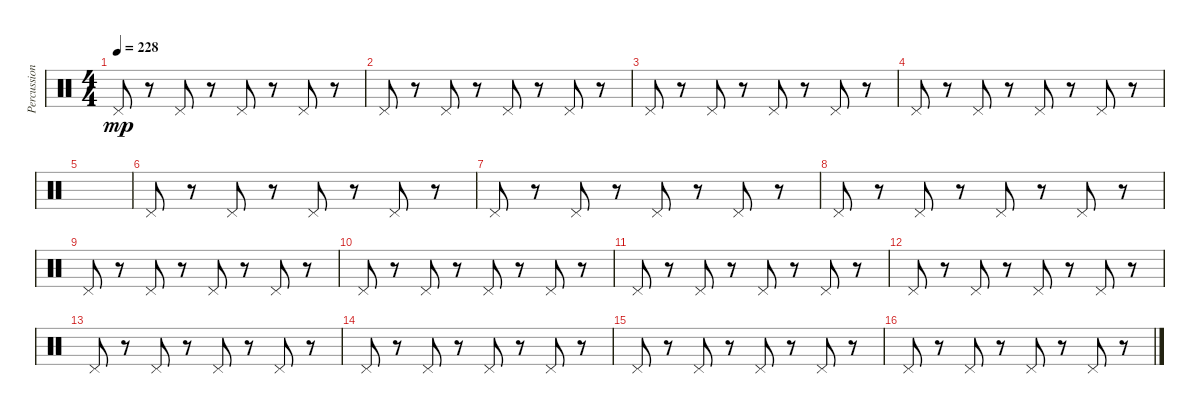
\track ("Percussions" "Percussion") {instrument percussion}
\staff {score}
\articulation defaults
\ts (4 4)
\tempo 228
\clef neutral
\ks c "Pedal Hi-Hat (hit)".8{dy mp}
r.8 "Pedal Hi-Hat (hit)".8 r.8 "Pedal Hi-Hat (hit)".8 r.8 "Pedal Hi-Hat (hit)".8 r.8 |
"Pedal Hi-Hat (hit)".8 r.8 "Pedal Hi-Hat (hit)".8 r.8 "Pedal Hi-Hat (hit)".8 r.8 "Pedal Hi-Hat (hit)".8 r.8 |
"Pedal Hi-Hat (hit)".8 r.8 "Pedal Hi-Hat (hit)".8 r.8 "Pedal Hi-Hat (hit)".8 r.8 "Pedal Hi-Hat (hit)".8 r.8 |
"Pedal Hi-Hat (hit)".8 r.8 "Pedal Hi-Hat (hit)".8 r.8 "Pedal Hi-Hat (hit)".8 r.8 "Pedal Hi-Hat (hit)".8 r.8 |
|
"Pedal Hi-Hat (hit)".8 r.8 "Pedal Hi-Hat (hit)".8 r.8 "Pedal Hi-Hat (hit)".8 r.8 "Pedal Hi-Hat (hit)".8 r.8 |
"Pedal Hi-Hat (hit)".8 r.8 "Pedal Hi-Hat (hit)".8 r.8 "Pedal Hi-Hat (hit)".8 r.8 "Pedal Hi-Hat (hit)".8 r.8 |
"Pedal Hi-Hat (hit)".8 r.8 "Pedal Hi-Hat (hit)".8 r.8 "Pedal Hi-Hat (hit)".8 r.8 "Pedal Hi-Hat (hit)".8 r.8 |
"Pedal Hi-Hat (hit)".8 r.8 "Pedal Hi-Hat (hit)".8 r.8 "Pedal Hi-Hat (hit)".8 r.8 "Pedal Hi-Hat (hit)".8 r.8 |
"Pedal Hi-Hat (hit)".8 r.8 "Pedal Hi-Hat (hit)".8 r.8 "Pedal Hi-Hat (hit)".8 r.8 "Pedal Hi-Hat (hit)".8 r.8 |
"Pedal Hi-Hat (hit)".8 r.8 "Pedal Hi-Hat (hit)".8 r.8 "Pedal Hi-Hat (hit)".8 r.8 "Pedal Hi-Hat (hit)".8 r.8 |
"Pedal Hi-Hat (hit)".8 r.8 "Pedal Hi-Hat (hit)".8 r.8 "Pedal Hi-Hat (hit)".8 r.8 "Pedal Hi-Hat (hit)".8 r.8 |
"Pedal Hi-Hat (hit)".8 r.8 "Pedal Hi-Hat (hit)".8 r.8 "Pedal Hi-Hat (hit)".8 r.8 "Pedal Hi-Hat (hit)".8 r.8 |
"Pedal Hi-Hat (hit)".8 r.8 "Pedal Hi-Hat (hit)".8 r.8 "Pedal Hi-Hat (hit)".8 r.8 "Pedal Hi-Hat (hit)".8 r.8 |
"Pedal Hi-Hat (hit)".8 r.8 "Pedal Hi-Hat (hit)".8 r.8 "Pedal Hi-Hat (hit)".8 r.8 "Pedal Hi-Hat (hit)".8 r.8 |
"Pedal Hi-Hat (hit)".8 r.8 "Pedal Hi-Hat (hit)".8 r.8 "Pedal Hi-Hat (hit)".8 r.8 "Pedal Hi-Hat (hit)".8 r.8
